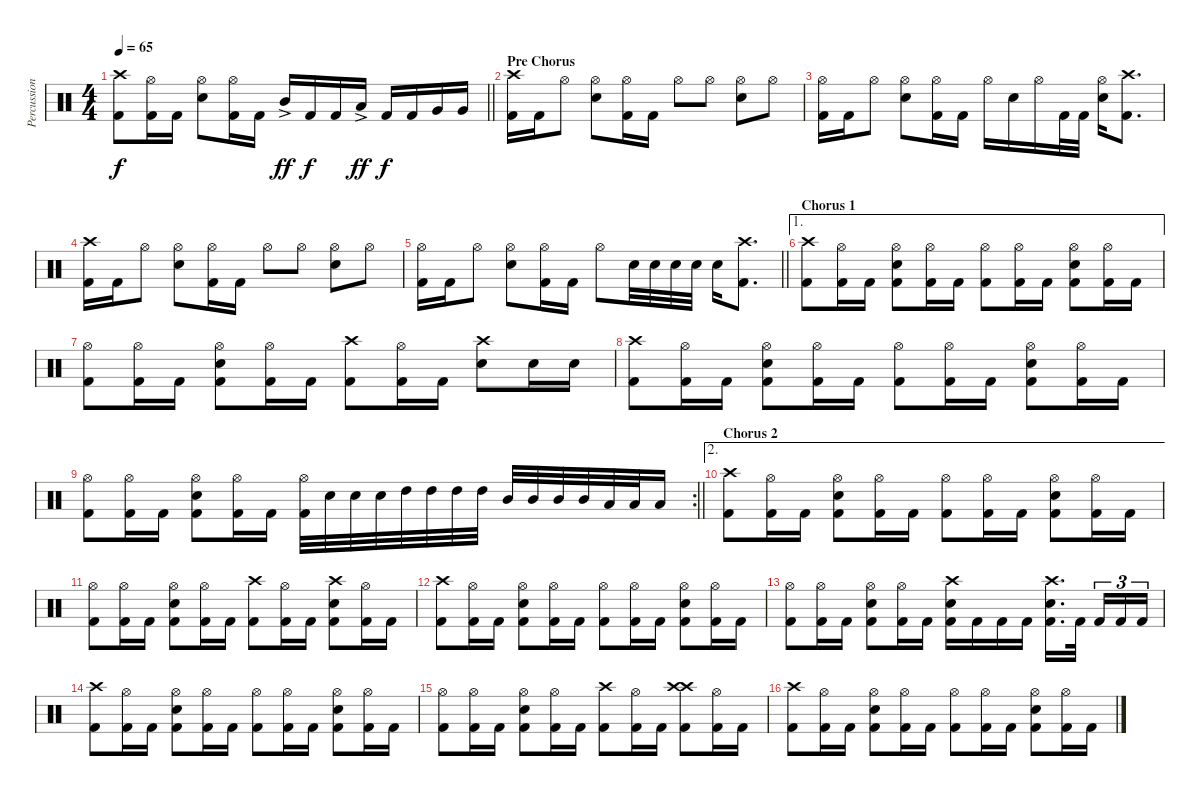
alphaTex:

\track ("Percussion" "Percussion") {instrument percussion}
\staff {score}
\articulation defaults
\ts (4 4)
\tempo 65
\clef neutral
\barLineRight lightlight
\ks c
("Crash high (hit)" "Kick (hit) 2").8{dy f} ("Hi-Hat (open)" "Kick (hit) 2").16 "Kick (hit) 2".16 ("Hi-Hat (open)" "Snare (hit) 2").8 ("Hi-Hat (open)" "Kick (hit) 2").16 "Kick (hit) 2".16 "Mid Tom (hit)"{ac}.16{dy ff} "Kick (hit) 2".16{dy f} "Kick (hit) 2".16 "Low Tom (hit)"{ac}.16{dy ff} "Kick (hit) 2".16{dy f} "Kick (hit) 2".16 "Very Low Tom (hit)".16 "Very Low Tom (hit)".16 |
\section ("" "Pre Chorus")
("Crash high (hit)" "Kick (hit) 2").16 "Kick (hit) 2".16 "Hi-Hat (open)".8 ("Hi-Hat (open)" "Snare (hit) 2").8 ("Hi-Hat (open)" "Kick (hit) 2").16 "Kick (hit) 2".16 "Hi-Hat (open)".8 "Hi-Hat (open)".8 ("Hi-Hat (open)" "Snare (hit) 2").8 "Hi-Hat (open)".8 |
("Hi-Hat (open)" "Kick (hit) 2").16 "Kick (hit) 2".16 "Hi-Hat (open)".8 ("Hi-Hat (open)" "Snare (hit) 2").8 ("Hi-Hat (open)" "Kick (hit) 2").16 "Kick (hit) 2".16 "Hi-Hat (open)".16 "Snare (hit) 2".16 "Hi-Hat (open)".16 "Kick (hit) 2".32 "Kick (hit) 2".32 ("Hi-Hat (open)" "Snare (hit) 2").16 ("Crash high (hit)" "Kick (hit) 2").8{d} |
("Crash high (hit)" "Kick (hit) 2").16 "Kick (hit) 2".16 "Hi-Hat (open)".8 ("Hi-Hat (open)" "Snare (hit) 2").8 ("Hi-Hat (open)" "Kick (hit) 2").16 "Kick (hit) 2".16 "Hi-Hat (open)".8 "Hi-Hat (open)".8 ("Hi-Hat (open)" "Snare (hit) 2").8 "Hi-Hat (open)".8 |
\barLineRight lightlight
("Hi-Hat (open)" "Kick (hit) 2").16 "Kick (hit) 2".16 "Hi-Hat (open)".8 ("Hi-Hat (open)" "Snare (hit) 2").8 ("Hi-Hat (open)" "Kick (hit) 2").16 "Kick (hit) 2".16 "Hi-Hat (open)".8 "Snare (hit) 2".32 "Snare (hit) 2".32 "Snare (hit) 2".32 "Snare (hit) 2".32 "Snare (hit) 2".16 ("Crash high (hit)" "Kick (hit) 2").8{d} |
\ae 1
\section ("" "Chorus 1")
("Crash high (hit)" "Kick (hit) 2").8 ("Hi-Hat (open)" "Kick (hit) 2").16 "Kick (hit) 2".16 ("Hi-Hat (open)" "Snare (hit) 2" "Kick (hit) 2").8 ("Hi-Hat (open)" "Kick (hit) 2").16 "Kick (hit) 2".16 ("Hi-Hat (open)" "Kick (hit) 2").8 ("Hi-Hat (open)" "Kick (hit) 2").16 "Kick (hit) 2".16 ("Hi-Hat (open)" "Snare (hit) 2" "Kick (hit) 2").8 ("Hi-Hat (open)" "Kick (hit) 2").16 "Kick (hit) 2".16 |
("Hi-Hat (open)" "Kick (hit) 2").8 ("Hi-Hat (open)" "Kick (hit) 2").16 "Kick (hit) 2".16 ("Hi-Hat (open)" "Snare (hit) 2" "Kick (hit) 2").8 ("Hi-Hat (open)" "Kick (hit) 2").16 "Kick (hit) 2".16 ("Crash high (hit)" "Kick (hit) 2").8 ("Hi-Hat (open)" "Kick (hit) 2").16 "Kick (hit) 2".16 ("Crash high (hit)" "Snare (hit) 2").8 "Snare (hit) 2".16 "Snare (hit) 2".16 |
("Crash high (hit)" "Kick (hit) 2").8 ("Hi-Hat (open)" "Kick (hit) 2").16 "Kick (hit) 2".16 ("Hi-Hat (open)" "Snare (hit) 2" "Kick (hit) 2").8 ("Hi-Hat (open)" "Kick (hit) 2").16 "Kick (hit) 2".16 ("Hi-Hat (open)" "Kick (hit) 2").8 ("Hi-Hat (open)" "Kick (hit) 2").16 "Kick (hit) 2".16 ("Hi-Hat (open)" "Snare (hit) 2" "Kick (hit) 2").8 ("Hi-Hat (open)" "Kick (hit) 2").16 "Kick (hit) 2".16 |
\rc 2
\barLineRight lightlight
("Hi-Hat (open)" "Kick (hit) 2").8 ("Hi-Hat (open)" "Kick (hit) 2").16 "Kick (hit) 2".16 ("Hi-Hat (open)" "Snare (hit) 2" "Kick (hit) 2").8 ("Hi-Hat (open)" "Kick (hit) 2").16 "Kick (hit) 2".16 ("Hi-Hat (open)" "Kick (hit) 2").32 "Snare (hit) 2".32 "Snare (hit) 2".32 "Snare (hit) 2".32 "High Tom (hit)".32 "High Tom (hit)".32 "High Tom (hit)".32 "High Tom (hit)".32 "Mid Tom (hit)".32 "Mid Tom (hit)".32 "Mid Tom (hit)".32 "Mid Tom (hit)".32 "Low Tom (hit)".32 "Low Tom (hit)".32 "Low Tom (hit)".16 |
\ae 2
\section ("" "Chorus 2")
("Crash high (hit)" "Kick (hit) 2").8 ("Hi-Hat (open)" "Kick (hit) 2").16 "Kick (hit) 2".16 ("Hi-Hat (open)" "Snare (hit) 2" "Kick (hit) 2").8 ("Hi-Hat (open)" "Kick (hit) 2").16 "Kick (hit) 2".16 ("Hi-Hat (open)" "Kick (hit) 2").8 ("Hi-Hat (open)" "Kick (hit) 2").16 "Kick (hit) 2".16 ("Hi-Hat (open)" "Snare (hit) 2" "Kick (hit) 2").8 ("Hi-Hat (open)" "Kick (hit) 2").16 "Kick (hit) 2".16 |
("Hi-Hat (open)" "Kick (hit) 2").8 ("Hi-Hat (open)" "Kick (hit) 2").16 "Kick (hit) 2".16 ("Hi-Hat (open)" "Snare (hit) 2" "Kick (hit) 2").8 ("Hi-Hat (open)" "Kick (hit) 2").16 "Kick (hit) 2".16 ("Crash high (hit)" "Kick (hit) 2").8 ("Hi-Hat (open)" "Kick (hit) 2").16 "Kick (hit) 2".16 ("Crash high (hit)" "Snare (hit) 2" "Kick (hit) 2").8 ("Hi-Hat (open)" "Kick (hit) 2").16 "Kick (hit) 2".16 |
("Crash high (hit)" "Kick (hit) 2").8 ("Hi-Hat (open)" "Kick (hit) 2").16 "Kick (hit) 2".16 ("Hi-Hat (open)" "Snare (hit) 2" "Kick (hit) 2").8 ("Hi-Hat (open)" "Kick (hit) 2").16 "Kick (hit) 2".16 ("Hi-Hat (open)" "Kick (hit) 2").8 ("Hi-Hat (open)" "Kick (hit) 2").16 "Kick (hit) 2".16 ("Hi-Hat (open)" "Snare (hit) 2" "Kick (hit) 2").8 ("Hi-Hat (open)" "Kick (hit) 2").16 "Kick (hit) 2".16 |
("Hi-Hat (open)" "Kick (hit) 2").8 ("Hi-Hat (open)" "Kick (hit) 2").16 "Kick (hit) 2".16 ("Hi-Hat (open)" "Snare (hit) 2" "Kick (hit) 2").8 ("Hi-Hat (open)" "Kick (hit) 2").16 "Kick (hit) 2".16 ("Crash high (hit)" "Snare (hit) 2" "Kick (hit) 2").16 "Kick (hit) 2".16 "Kick (hit) 2".16 "Kick (hit) 2".16 ("Crash high (hit)" "Snare (hit) 2" "Kick (hit) 2").16{d} "Kick (hit) 2".32 "Kick (hit) 2".16{tu (3 2)} "Kick (hit) 2".16{tu (3 2)} "Kick (hit) 2".16{tu (3 2)} |
("Crash high (hit)" "Kick (hit) 2").8 ("Hi-Hat (open)" "Kick (hit) 2").16 "Kick (hit) 2".16 ("Hi-Hat (open)" "Snare (hit) 2" "Kick (hit) 2").8 ("Hi-Hat (open)" "Kick (hit) 2").16 "Kick (hit) 2".16 ("Hi-Hat (open)" "Kick (hit) 2").8 ("Hi-Hat (open)" "Kick (hit) 2").16 "Kick (hit) 2".16 ("Hi-Hat (open)" "Snare (hit) 2" "Kick (hit) 2").8 ("Hi-Hat (open)" "Kick (hit) 2").16 "Kick (hit) 2".16 |
("Hi-Hat (open)" "Kick (hit) 2").8 ("Hi-Hat (open)" "Kick (hit) 2").16 "Kick (hit) 2".16 ("Hi-Hat (open)" "Snare (hit) 2" "Kick (hit) 2").8 ("Hi-Hat (open)" "Kick (hit) 2").16 "Kick (hit) 2".16 ("Crash high (hit)" "Kick (hit) 2").8 ("Hi-Hat (open)" "Kick (hit) 2").16 "Kick (hit) 2".16 ("Crash high (hit)" "Crash high (hit)" "Kick (hit) 2").8 ("Hi-Hat (open)" "Kick (hit) 2").16 "Kick (hit) 2".16 |
("Crash high (hit)" "Kick (hit) 2").8 ("Hi-Hat (open)" "Kick (hit) 2").16 "Kick (hit) 2".16 ("Hi-Hat (open)" "Snare (hit) 2" "Kick (hit) 2").8 ("Hi-Hat (open)" "Kick (hit) 2").16 "Kick (hit) 2".16 ("Hi-Hat (open)" "Kick (hit) 2").8 ("Hi-Hat (open)" "Kick (hit) 2").16 "Kick (hit) 2".16 ("Hi-Hat (open)" "Snare (hit) 2" "Kick (hit) 2").8 ("Hi-Hat (open)" "Kick (hit) 2").16 "Kick (hit) 2".16
